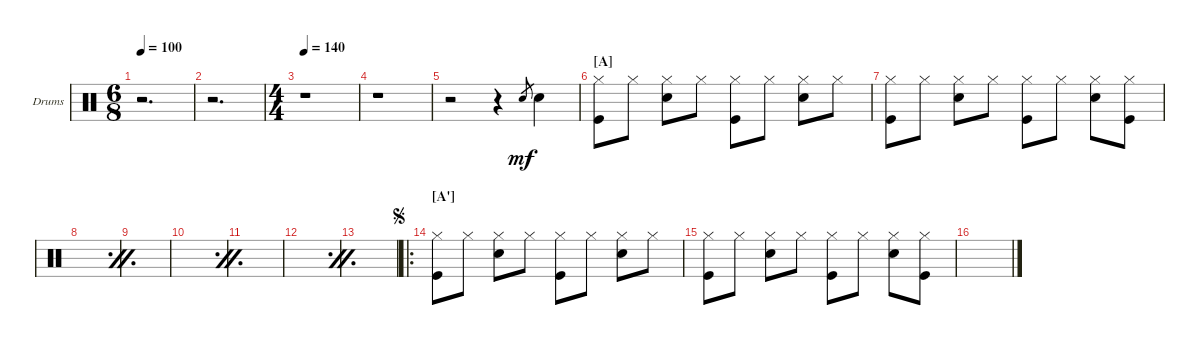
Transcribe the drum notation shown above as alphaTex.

\defaultSystemsLayout 4
\bracketExtendMode groupsimilarinstruments
\firstSystemTrackNameOrientation horizontal
\otherSystemsTrackNameOrientation horizontal
\track ("Drumkit" "Drums") {instrument percussion}
\staff {score}
\articulation defaults
\ts (6 8)
\tempo 100
\clef neutral
\scale
0.391473
\ks c
r.2{d dy mf} |
\scale
0.217054 r.2{d} |
\ts (4 4)
\tempo 140
\scale
0.391473 r.1 |
r.1 |
r.2 r.4 "Snare (hit) 2".8{gr} "Snare (hit) 2".4 |
\section ("A" "")
("Hi-Hat (closed)" "Kick (hit)").8 "Hi-Hat (closed)".8 ("Hi-Hat (closed)" "Snare (hit) 2").8 "Hi-Hat (closed)".8 ("Hi-Hat (closed)" "Kick (hit)").8 "Hi-Hat (closed)".8 ("Hi-Hat (closed)" "Snare (hit) 2").8 "Hi-Hat (closed)".8 |
("Hi-Hat (closed)" "Kick (hit)").8 "Hi-Hat (closed)".8 ("Hi-Hat (closed)" "Snare (hit) 2").8 "Hi-Hat (closed)".8 ("Hi-Hat (closed)" "Kick (hit)").8 "Hi-Hat (closed)".8 ("Hi-Hat (closed)" "Snare (hit) 2").8 ("Hi-Hat (closed)" "Kick (hit)").8 |
\simile firstofdouble
|
\simile secondofdouble
|
\simile firstofdouble
|
\simile secondofdouble
|
\simile firstofdouble
|
\simile secondofdouble
|
\ro
\section ("A'" "")
\jump segno
\simile none
("Hi-Hat (closed)" "Kick (hit)").8 "Hi-Hat (closed)".8 ("Hi-Hat (closed)" "Snare (hit) 2").8 "Hi-Hat (closed)".8 ("Hi-Hat (closed)" "Kick (hit)").8 "Hi-Hat (closed)".8 ("Hi-Hat (closed)" "Snare (hit) 2").8 "Hi-Hat (closed)".8 |
("Hi-Hat (closed)" "Kick (hit)").8 "Hi-Hat (closed)".8 ("Hi-Hat (closed)" "Snare (hit) 2").8 "Hi-Hat (closed)".8 ("Hi-Hat (closed)" "Kick (hit)").8 "Hi-Hat (closed)".8 ("Hi-Hat (closed)" "Snare (hit) 2").8 ("Hi-Hat (closed)" "Kick (hit)").8 |
\simile firstofdouble
